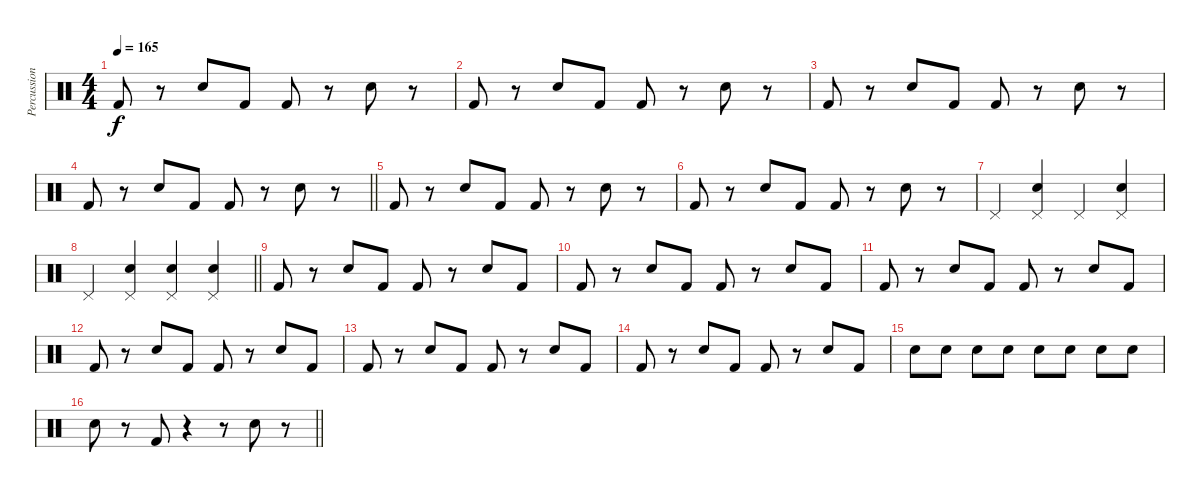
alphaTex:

\track ("Percussion" "Percussion") {instrument percussion}
\staff {score}
\articulation defaults
\ts (4 4)
\tempo 165
\clef neutral
\ks c "Kick (hit) 2".8{dy f}
r.8 "Snare (hit) 2".8 "Kick (hit) 2".8 "Kick (hit) 2".8 r.8 "Snare (hit) 2".8 r.8 |
"Kick (hit) 2".8 r.8 "Snare (hit) 2".8 "Kick (hit) 2".8 "Kick (hit) 2".8 r.8 "Snare (hit) 2".8 r.8 |
"Kick (hit) 2".8 r.8 "Snare (hit) 2".8 "Kick (hit) 2".8 "Kick (hit) 2".8 r.8 "Snare (hit) 2".8 r.8 |
\barLineRight lightlight "Kick (hit) 2".8
r.8 "Snare (hit) 2".8 "Kick (hit) 2".8 "Kick (hit) 2".8 r.8 "Snare (hit) 2".8 r.8 |
"Kick (hit) 2".8 r.8 "Snare (hit) 2".8 "Kick (hit) 2".8 "Kick (hit) 2".8 r.8 "Snare (hit) 2".8 r.8 |
"Kick (hit) 2".8 r.8 "Snare (hit) 2".8 "Kick (hit) 2".8 "Kick (hit) 2".8 r.8 "Snare (hit) 2".8 r.8 |
"Pedal Hi-Hat (hit)".4 ("Pedal Hi-Hat (hit)" "Snare (hit) 2").4 "Pedal Hi-Hat (hit)".4 ("Pedal Hi-Hat (hit)" "Snare (hit) 2").4 |
\barLineRight lightlight "Pedal Hi-Hat (hit)".4
("Pedal Hi-Hat (hit)" "Snare (hit) 2").4 ("Pedal Hi-Hat (hit)" "Snare (hit) 2").4 ("Pedal Hi-Hat (hit)" "Snare (hit) 2").4 |
"Kick (hit) 2".8 r.8 "Snare (hit) 2".8 "Kick (hit) 2".8 "Kick (hit) 2".8 r.8 "Snare (hit) 2".8 "Kick (hit) 2".8 |
"Kick (hit) 2".8 r.8 "Snare (hit) 2".8 "Kick (hit) 2".8 "Kick (hit) 2".8 r.8 "Snare (hit) 2".8 "Kick (hit) 2".8 |
"Kick (hit) 2".8 r.8 "Snare (hit) 2".8 "Kick (hit) 2".8 "Kick (hit) 2".8 r.8 "Snare (hit) 2".8 "Kick (hit) 2".8 |
"Kick (hit) 2".8 r.8 "Snare (hit) 2".8 "Kick (hit) 2".8 "Kick (hit) 2".8 r.8 "Snare (hit) 2".8 "Kick (hit) 2".8 |
"Kick (hit) 2".8 r.8 "Snare (hit) 2".8 "Kick (hit) 2".8 "Kick (hit) 2".8 r.8 "Snare (hit) 2".8 "Kick (hit) 2".8 |
"Kick (hit) 2".8 r.8 "Snare (hit) 2".8 "Kick (hit) 2".8 "Kick (hit) 2".8 r.8 "Snare (hit) 2".8 "Kick (hit) 2".8 |
"Snare (hit) 2".8 "Snare (hit) 2".8 "Snare (hit) 2".8 "Snare (hit) 2".8 "Snare (hit) 2".8 "Snare (hit) 2".8 "Snare (hit) 2".8 "Snare (hit) 2".8 |
\barLineRight lightlight "Snare (hit) 2".8
r.8 "Kick (hit) 2".8 r.4 r.8 "Snare (hit) 2".8 r.8
